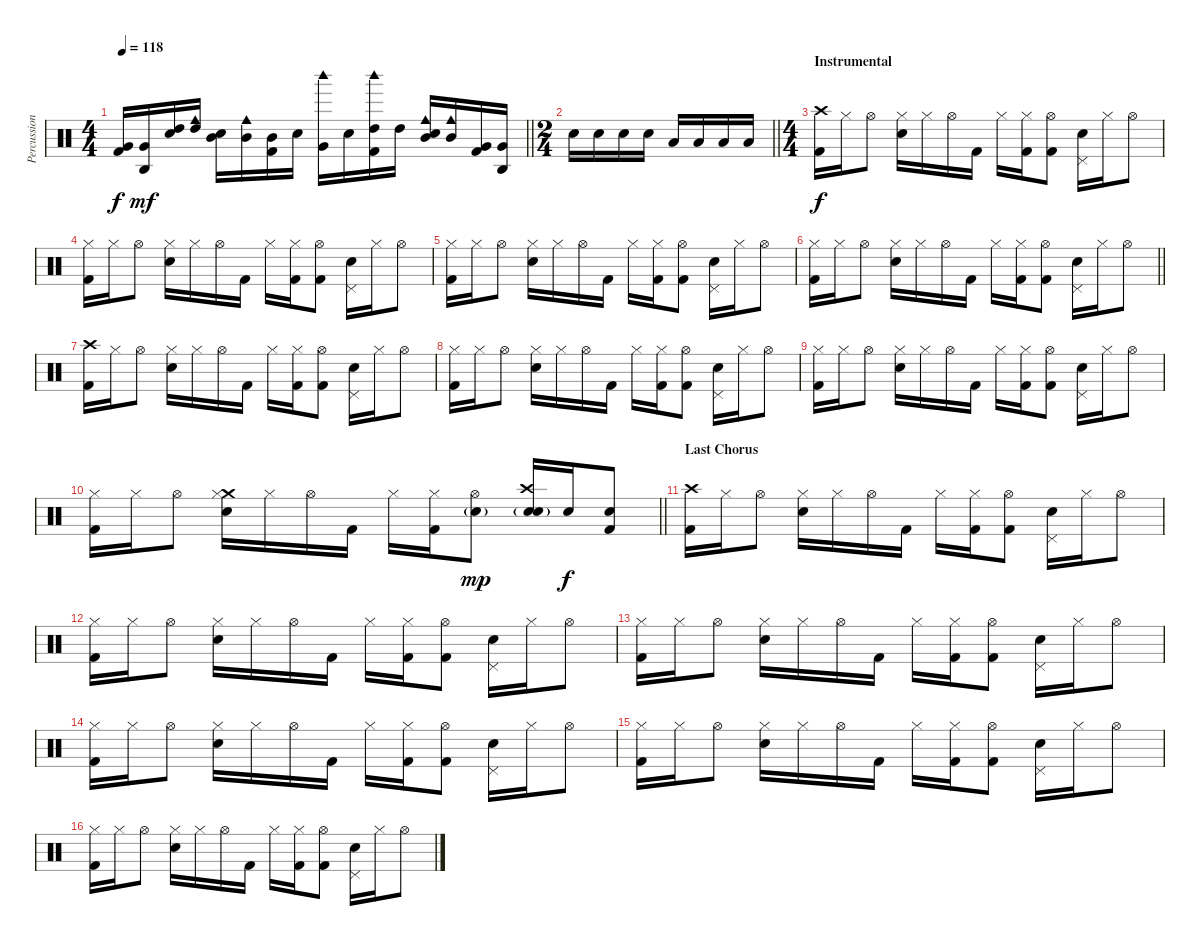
\track ("Percussion" "Percussion") {instrument percussion}
\staff {score}
\articulation defaults
\ts (4 4)
\tempo 118
\clef neutral
\barLineRight lightlight
\ks c
("Very Low Tom (hit)" "Kick (hit) 2").16{dy f} ("Agogo high (hit)" "Very Low Tom (hit)").16{dy mf} ("High Tom (hit)" "Snare (hit) 2").16 ("Cowbell medium (hit)" "High Tom (hit)").16 ("Mid Tom (hit)" "Snare (hit) 2").16 ("Cowbell medium (hit)" "Mid Tom (hit)").16 ("Mid Tom (hit)" "Kick (hit) 2").16 "Snare (hit) 2".16 ("Woodblock high (hit)" "Very Low Tom (hit)").16 "Snare (hit) 2".16 ("Woodblock high (hit)" "High Tom (hit)" "Kick (hit) 2").16 "High Tom (hit)".16 ("Cowbell medium (hit)" "Mid Tom (hit)" "Snare (hit) 2").16 ("Cowbell medium (hit)" "Mid Tom (hit)").16 ("Very Low Tom (hit)" "Kick (hit) 2").16 ("Agogo high (hit)" "Very Low Tom (hit)").16 |
\ts (2 4)
\barLineRight lightlight "Electric Snare (hit)".16 "Electric Snare (hit)".16 "Electric Snare (hit)".16 "Electric Snare (hit)".16 "Low Tom (hit)".16 "Low Tom (hit)".16 "Low Tom (hit)".16 "Low Tom (hit)".16
|
\ts (4 4)
\section ("" "Instrumental")
("Crash high (hit)" "Kick (hit) 2").16{dy f} "Hi-Hat (closed)".16 "Hi-Hat (open)".8 ("Hi-Hat (closed)" "Electric Snare (hit)").16 "Hi-Hat (closed)".16 "Hi-Hat (open)".16 "Kick (hit) 2".16 "Hi-Hat (closed)".16 ("Hi-Hat (closed)" "Kick (hit) 2").16 ("Hi-Hat (open)" "Kick (hit) 2").8 ("Pedal Hi-Hat (hit)" "Electric Snare (hit)").16 "Hi-Hat (closed)".16 "Hi-Hat (open)".8 |
("Hi-Hat (closed)" "Kick (hit) 2").16 "Hi-Hat (closed)".16 "Hi-Hat (open)".8 ("Hi-Hat (closed)" "Electric Snare (hit)").16 "Hi-Hat (closed)".16 "Hi-Hat (open)".16 "Kick (hit) 2".16 "Hi-Hat (closed)".16 ("Hi-Hat (closed)" "Kick (hit) 2").16 ("Hi-Hat (open)" "Kick (hit) 2").8 ("Pedal Hi-Hat (hit)" "Electric Snare (hit)").16 "Hi-Hat (closed)".16 "Hi-Hat (open)".8 |
("Hi-Hat (closed)" "Kick (hit) 2").16 "Hi-Hat (closed)".16 "Hi-Hat (open)".8 ("Hi-Hat (closed)" "Electric Snare (hit)").16 "Hi-Hat (closed)".16 "Hi-Hat (open)".16 "Kick (hit) 2".16 "Hi-Hat (closed)".16 ("Hi-Hat (closed)" "Kick (hit) 2").16 ("Hi-Hat (open)" "Kick (hit) 2").8 ("Pedal Hi-Hat (hit)" "Electric Snare (hit)").16 "Hi-Hat (closed)".16 "Hi-Hat (open)".8 |
\barLineRight lightlight
("Hi-Hat (closed)" "Kick (hit) 2").16 "Hi-Hat (closed)".16 "Hi-Hat (open)".8 ("Hi-Hat (closed)" "Electric Snare (hit)").16 "Hi-Hat (closed)".16 "Hi-Hat (open)".16 "Kick (hit) 2".16 "Hi-Hat (closed)".16 ("Hi-Hat (closed)" "Kick (hit) 2").16 ("Hi-Hat (open)" "Kick (hit) 2").8 ("Pedal Hi-Hat (hit)" "Electric Snare (hit)").16 "Hi-Hat (closed)".16 "Hi-Hat (open)".8 |
("Crash high (hit)" "Kick (hit) 2").16 "Hi-Hat (closed)".16 "Hi-Hat (open)".8 ("Hi-Hat (closed)" "Electric Snare (hit)").16 "Hi-Hat (closed)".16 "Hi-Hat (open)".16 "Kick (hit) 2".16 "Hi-Hat (closed)".16 ("Hi-Hat (closed)" "Kick (hit) 2").16 ("Hi-Hat (open)" "Kick (hit) 2").8 ("Pedal Hi-Hat (hit)" "Electric Snare (hit)").16 "Hi-Hat (closed)".16 "Hi-Hat (open)".8 |
("Hi-Hat (closed)" "Kick (hit) 2").16 "Hi-Hat (closed)".16 "Hi-Hat (open)".8 ("Hi-Hat (closed)" "Electric Snare (hit)").16 "Hi-Hat (closed)".16 "Hi-Hat (open)".16 "Kick (hit) 2".16 "Hi-Hat (closed)".16 ("Hi-Hat (closed)" "Kick (hit) 2").16 ("Hi-Hat (open)" "Kick (hit) 2").8 ("Pedal Hi-Hat (hit)" "Electric Snare (hit)").16 "Hi-Hat (closed)".16 "Hi-Hat (open)".8 |
("Hi-Hat (closed)" "Kick (hit) 2").16 "Hi-Hat (closed)".16 "Hi-Hat (open)".8 ("Hi-Hat (closed)" "Electric Snare (hit)").16 "Hi-Hat (closed)".16 "Hi-Hat (open)".16 "Kick (hit) 2".16 "Hi-Hat (closed)".16 ("Hi-Hat (closed)" "Kick (hit) 2").16 ("Hi-Hat (open)" "Kick (hit) 2").8 ("Pedal Hi-Hat (hit)" "Electric Snare (hit)").16 "Hi-Hat (closed)".16 "Hi-Hat (open)".8 |
\barLineRight lightlight
("Hi-Hat (closed)" "Kick (hit) 2").16 "Hi-Hat (closed)".16 "Hi-Hat (open)".8 ("Crash medium (hit)" "Hi-Hat (closed)" "Electric Snare (hit)").16 "Hi-Hat (closed)".16 "Hi-Hat (open)".16 "Kick (hit) 2".16 "Hi-Hat (closed)".16 ("Hi-Hat (closed)" "Kick (hit) 2").16 ("Hi-Hat (open)" "Hand Clap (hit)"{g}).8{dy mp} ("Crash high (hit)" "Electric Snare (hit)" "Hand Clap (hit)"{g}).16 "Electric Snare (hit)".16{dy f} ("Electric Snare (hit)" "Kick (hit) 2").8 |
\section ("" "Last Chorus")
("Crash high (hit)" "Kick (hit) 2").16 "Hi-Hat (closed)".16 "Hi-Hat (open)".8 ("Hi-Hat (closed)" "Electric Snare (hit)").16 "Hi-Hat (closed)".16 "Hi-Hat (open)".16 "Kick (hit) 2".16 "Hi-Hat (closed)".16 ("Hi-Hat (closed)" "Kick (hit) 2").16 ("Hi-Hat (open)" "Kick (hit) 2").8 ("Pedal Hi-Hat (hit)" "Electric Snare (hit)").16 "Hi-Hat (closed)".16 "Hi-Hat (open)".8 |
("Hi-Hat (closed)" "Kick (hit) 2").16 "Hi-Hat (closed)".16 "Hi-Hat (open)".8 ("Hi-Hat (closed)" "Electric Snare (hit)").16 "Hi-Hat (closed)".16 "Hi-Hat (open)".16 "Kick (hit) 2".16 "Hi-Hat (closed)".16 ("Hi-Hat (closed)" "Kick (hit) 2").16 ("Hi-Hat (open)" "Kick (hit) 2").8 ("Pedal Hi-Hat (hit)" "Electric Snare (hit)").16 "Hi-Hat (closed)".16 "Hi-Hat (open)".8 |
("Hi-Hat (closed)" "Kick (hit) 2").16 "Hi-Hat (closed)".16 "Hi-Hat (open)".8 ("Hi-Hat (closed)" "Electric Snare (hit)").16 "Hi-Hat (closed)".16 "Hi-Hat (open)".16 "Kick (hit) 2".16 "Hi-Hat (closed)".16 ("Hi-Hat (closed)" "Kick (hit) 2").16 ("Hi-Hat (open)" "Kick (hit) 2").8 ("Pedal Hi-Hat (hit)" "Electric Snare (hit)").16 "Hi-Hat (closed)".16 "Hi-Hat (open)".8 |
("Hi-Hat (closed)" "Kick (hit) 2").16 "Hi-Hat (closed)".16 "Hi-Hat (open)".8 ("Hi-Hat (closed)" "Electric Snare (hit)").16 "Hi-Hat (closed)".16 "Hi-Hat (open)".16 "Kick (hit) 2".16 "Hi-Hat (closed)".16 ("Hi-Hat (closed)" "Kick (hit) 2").16 ("Hi-Hat (open)" "Kick (hit) 2").8 ("Pedal Hi-Hat (hit)" "Electric Snare (hit)").16 "Hi-Hat (closed)".16 "Hi-Hat (open)".8 |
("Hi-Hat (closed)" "Kick (hit) 2").16 "Hi-Hat (closed)".16 "Hi-Hat (open)".8 ("Hi-Hat (closed)" "Electric Snare (hit)").16 "Hi-Hat (closed)".16 "Hi-Hat (open)".16 "Kick (hit) 2".16 "Hi-Hat (closed)".16 ("Hi-Hat (closed)" "Kick (hit) 2").16 ("Hi-Hat (open)" "Kick (hit) 2").8 ("Pedal Hi-Hat (hit)" "Electric Snare (hit)").16 "Hi-Hat (closed)".16 "Hi-Hat (open)".8 |
("Hi-Hat (closed)" "Kick (hit) 2").16 "Hi-Hat (closed)".16 "Hi-Hat (open)".8 ("Hi-Hat (closed)" "Electric Snare (hit)").16 "Hi-Hat (closed)".16 "Hi-Hat (open)".16 "Kick (hit) 2".16 "Hi-Hat (closed)".16 ("Hi-Hat (closed)" "Kick (hit) 2").16 ("Hi-Hat (open)" "Kick (hit) 2").8 ("Pedal Hi-Hat (hit)" "Electric Snare (hit)").16 "Hi-Hat (closed)".16 "Hi-Hat (open)".8
